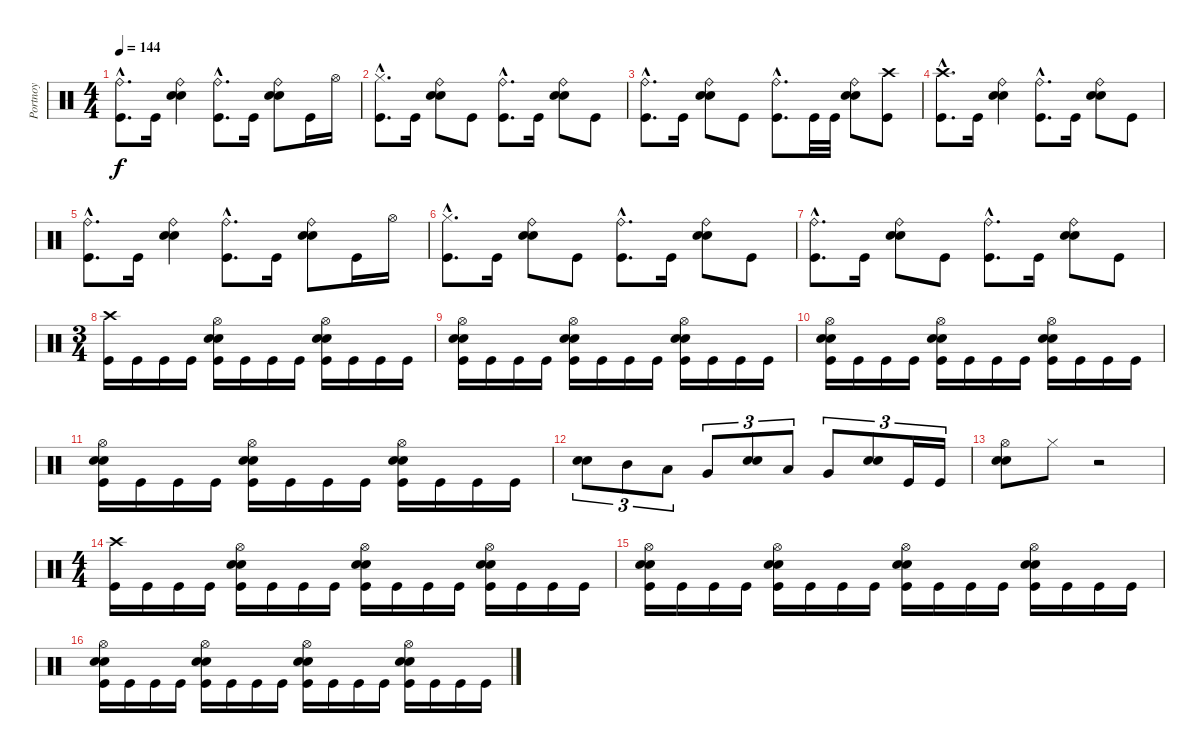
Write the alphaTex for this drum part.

\track ("Portnoy" "Portnoy") {instrument percussion}
\staff {score}
\articulation defaults
\ts (4 4)
\tempo 144
\clef neutral
\ks c
("Ride (bell)"{hac} "Kick (hit)"{hac}).8{d dy f} "Kick (hit)".16 ("Ride (bell)" "Snare (hit) 2" "Electric Snare (hit)").4 ("Ride (bell)"{hac} "Kick (hit)"{hac}).8{d} "Kick (hit)".16 ("Ride (bell)" "Snare (hit) 2" "Electric Snare (hit)").8 "Kick (hit)".16 "Hi-Hat (open)".16 |
("Hi-Hat (closed)"{hac} "Kick (hit)"{hac}).8{d} "Kick (hit)".16 ("Ride (bell)" "Snare (hit) 2" "Electric Snare (hit)").8 "Kick (hit)".8 ("Ride (bell)"{hac} "Kick (hit)"{hac}).8{d} "Kick (hit)".16 ("Ride (bell)" "Snare (hit) 2" "Electric Snare (hit)").8 "Kick (hit)".8 |
("Ride (bell)"{hac} "Kick (hit)"{hac}).8{d} "Kick (hit)".16 ("Ride (bell)" "Snare (hit) 2" "Electric Snare (hit)").8 "Kick (hit)".8 ("Ride (bell)"{hac} "Kick (hit)"{hac}).8{d} "Kick (hit)".32 "Kick (hit)".32 ("Ride (bell)" "Snare (hit) 2" "Electric Snare (hit)").8 ("Crash high (hit)" "Kick (hit)").8 |
("Crash high (hit)"{hac} "Kick (hit)"{hac}).8{d} "Kick (hit)".16 ("Ride (bell)" "Snare (hit) 2" "Electric Snare (hit)").4 ("Ride (bell)"{hac} "Kick (hit)"{hac}).8{d} "Kick (hit)".16 ("Ride (bell)" "Snare (hit) 2" "Electric Snare (hit)").8 "Kick (hit)".8 |
("Ride (bell)"{hac} "Kick (hit)"{hac}).8{d} "Kick (hit)".16 ("Ride (bell)" "Snare (hit) 2" "Electric Snare (hit)").4 ("Ride (bell)"{hac} "Kick (hit)"{hac}).8{d} "Kick (hit)".16 ("Ride (bell)" "Snare (hit) 2" "Electric Snare (hit)").8 "Kick (hit)".16 "Hi-Hat (open)".16 |
("Hi-Hat (closed)"{hac} "Kick (hit)"{hac}).8{d} "Kick (hit)".16 ("Ride (bell)" "Snare (hit) 2" "Electric Snare (hit)").8 "Kick (hit)".8 ("Ride (bell)"{hac} "Kick (hit)"{hac}).8{d} "Kick (hit)".16 ("Ride (bell)" "Snare (hit) 2" "Electric Snare (hit)").8 "Kick (hit)".8 |
("Ride (bell)"{hac} "Kick (hit)"{hac}).8{d} "Kick (hit)".16 ("Ride (bell)" "Snare (hit) 2" "Electric Snare (hit)").8 "Kick (hit)".8 ("Ride (bell)"{hac} "Kick (hit)"{hac}).8{d} "Kick (hit)".16 ("Ride (bell)" "Snare (hit) 2" "Electric Snare (hit)").8 "Kick (hit)".8 |
\ts (3 4)
("Crash high (hit)" "Kick (hit)").16 "Kick (hit)".16 "Kick (hit)".16 "Kick (hit)".16 ("Hi-Hat (open)" "Snare (hit) 2" "Electric Snare (hit)" "Kick (hit)").16 "Kick (hit)".16 "Kick (hit)".16 "Kick (hit)".16 ("Hi-Hat (open)" "Snare (hit) 2" "Electric Snare (hit)" "Kick (hit)").16 "Kick (hit)".16 "Kick (hit)".16 "Kick (hit)".16 |
("Hi-Hat (open)" "Snare (hit) 2" "Electric Snare (hit)" "Kick (hit)").16 "Kick (hit)".16 "Kick (hit)".16 "Kick (hit)".16 ("Hi-Hat (open)" "Snare (hit) 2" "Electric Snare (hit)" "Kick (hit)").16 "Kick (hit)".16 "Kick (hit)".16 "Kick (hit)".16 ("Hi-Hat (open)" "Snare (hit) 2" "Electric Snare (hit)" "Kick (hit)").16 "Kick (hit)".16 "Kick (hit)".16 "Kick (hit)".16 |
("Hi-Hat (open)" "Snare (hit) 2" "Electric Snare (hit)" "Kick (hit)").16 "Kick (hit)".16 "Kick (hit)".16 "Kick (hit)".16 ("Hi-Hat (open)" "Snare (hit) 2" "Electric Snare (hit)" "Kick (hit)").16 "Kick (hit)".16 "Kick (hit)".16 "Kick (hit)".16 ("Hi-Hat (open)" "Snare (hit) 2" "Electric Snare (hit)" "Kick (hit)").16 "Kick (hit)".16 "Kick (hit)".16 "Kick (hit)".16 |
("Hi-Hat (open)" "Snare (hit) 2" "Electric Snare (hit)" "Kick (hit)").16 "Kick (hit)".16 "Kick (hit)".16 "Kick (hit)".16 ("Hi-Hat (open)" "Snare (hit) 2" "Electric Snare (hit)" "Kick (hit)").16 "Kick (hit)".16 "Kick (hit)".16 "Kick (hit)".16 ("Hi-Hat (open)" "Snare (hit) 2" "Electric Snare (hit)" "Kick (hit)").16 "Kick (hit)".16 "Kick (hit)".16 "Kick (hit)".16 |
("Snare (hit) 2" "Electric Snare (hit)").8{tu (3 2)} "Mid Tom (hit)".8{tu (3 2)} "Low Tom (hit)".8{tu (3 2)} "Very Low Tom (hit)".8{tu (3 2)} ("Snare (hit) 2" "Electric Snare (hit)").8{tu (3 2)} "Low Tom (hit)".8{tu (3 2)} "Very Low Tom (hit)".8{tu (3 2)} ("Snare (hit) 2" "Electric Snare (hit)").8{tu (3 2)} "Kick (hit)".16{tu (3 2)} "Kick (hit)".16{tu (3 2)} |
("Hi-Hat (open)" "Snare (hit) 2" "Electric Snare (hit)").8 "Hi-Hat (closed)".8 r.2 |
\ts (4 4)
("Crash high (hit)" "Kick (hit)").16 "Kick (hit)".16 "Kick (hit)".16 "Kick (hit)".16 ("Hi-Hat (open)" "Snare (hit) 2" "Electric Snare (hit)" "Kick (hit)").16 "Kick (hit)".16 "Kick (hit)".16 "Kick (hit)".16 ("Hi-Hat (open)" "Snare (hit) 2" "Electric Snare (hit)" "Kick (hit)").16 "Kick (hit)".16 "Kick (hit)".16 "Kick (hit)".16 ("Hi-Hat (open)" "Snare (hit) 2" "Electric Snare (hit)" "Kick (hit)").16 "Kick (hit)".16 "Kick (hit)".16 "Kick (hit)".16 |
("Hi-Hat (open)" "Snare (hit) 2" "Electric Snare (hit)" "Kick (hit)").16 "Kick (hit)".16 "Kick (hit)".16 "Kick (hit)".16 ("Hi-Hat (open)" "Snare (hit) 2" "Electric Snare (hit)" "Kick (hit)").16 "Kick (hit)".16 "Kick (hit)".16 "Kick (hit)".16 ("Hi-Hat (open)" "Snare (hit) 2" "Electric Snare (hit)" "Kick (hit)").16 "Kick (hit)".16 "Kick (hit)".16 "Kick (hit)".16 ("Hi-Hat (open)" "Snare (hit) 2" "Electric Snare (hit)" "Kick (hit)").16 "Kick (hit)".16 "Kick (hit)".16 "Kick (hit)".16 |
("Hi-Hat (open)" "Snare (hit) 2" "Electric Snare (hit)" "Kick (hit)").16 "Kick (hit)".16 "Kick (hit)".16 "Kick (hit)".16 ("Hi-Hat (open)" "Snare (hit) 2" "Electric Snare (hit)" "Kick (hit)").16 "Kick (hit)".16 "Kick (hit)".16 "Kick (hit)".16 ("Hi-Hat (open)" "Snare (hit) 2" "Electric Snare (hit)" "Kick (hit)").16 "Kick (hit)".16 "Kick (hit)".16 "Kick (hit)".16 ("Hi-Hat (open)" "Snare (hit) 2" "Electric Snare (hit)" "Kick (hit)").16 "Kick (hit)".16 "Kick (hit)".16 "Kick (hit)".16
